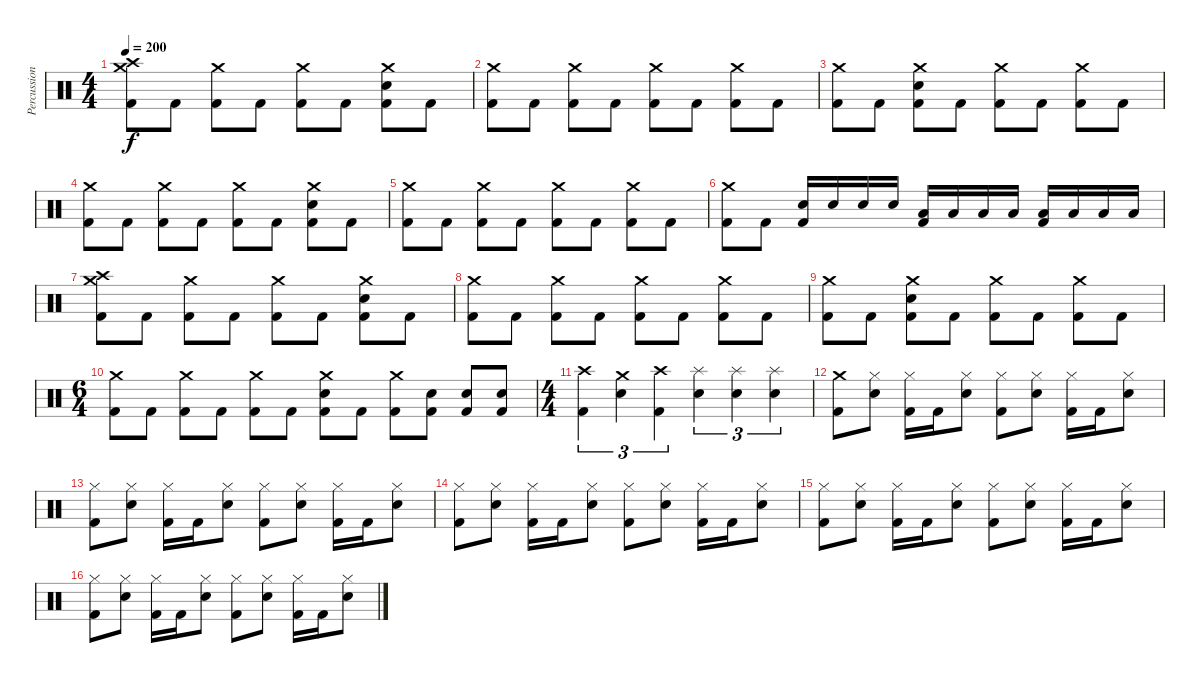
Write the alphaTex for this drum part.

\track ("Percussion" "Percussion") {instrument percussion}
\staff {score}
\articulation defaults
\ts (4 4)
\tempo 200
\clef neutral
\ks c
("Crash medium (hit)" "Crash high (hit)" "Kick (hit) 2").8{dy f} "Kick (hit) 2".8 ("Crash medium (hit)" "Kick (hit) 2").8 "Kick (hit) 2".8 ("Crash medium (hit)" "Kick (hit) 2").8 "Kick (hit) 2".8 ("Crash medium (hit)" "Electric Snare (hit)" "Kick (hit) 2").8 "Kick (hit) 2".8 |
("Crash medium (hit)" "Kick (hit) 2").8 "Kick (hit) 2".8 ("Crash medium (hit)" "Kick (hit) 2").8 "Kick (hit) 2".8 ("Crash medium (hit)" "Kick (hit) 2").8 "Kick (hit) 2".8 ("Crash medium (hit)" "Kick (hit) 2").8 "Kick (hit) 2".8 |
("Crash medium (hit)" "Kick (hit) 2").8 "Kick (hit) 2".8 ("Crash medium (hit)" "Electric Snare (hit)" "Kick (hit) 2").8 "Kick (hit) 2".8 ("Crash medium (hit)" "Kick (hit) 2").8 "Kick (hit) 2".8 ("Crash medium (hit)" "Kick (hit) 2").8 "Kick (hit) 2".8 |
("Crash medium (hit)" "Kick (hit) 2").8 "Kick (hit) 2".8 ("Crash medium (hit)" "Kick (hit) 2").8 "Kick (hit) 2".8 ("Crash medium (hit)" "Kick (hit) 2").8 "Kick (hit) 2".8 ("Crash medium (hit)" "Electric Snare (hit)" "Kick (hit) 2").8 "Kick (hit) 2".8 |
("Crash medium (hit)" "Kick (hit) 2").8 "Kick (hit) 2".8 ("Crash medium (hit)" "Kick (hit) 2").8 "Kick (hit) 2".8 ("Crash medium (hit)" "Kick (hit) 2").8 "Kick (hit) 2".8 ("Crash medium (hit)" "Kick (hit) 2").8 "Kick (hit) 2".8 |
("Crash medium (hit)" "Kick (hit) 2").8 "Kick (hit) 2".8 ("Electric Snare (hit)" "Kick (hit) 2").16 "Electric Snare (hit)".16 "Electric Snare (hit)".16 "Electric Snare (hit)".16 ("Low Tom (hit)" "Kick (hit) 2").16 "Low Tom (hit)".16 "Low Tom (hit)".16 "Low Tom (hit)".16 ("Low Floor Tom (hit)" "Kick (hit) 2").16 "Low Floor Tom (hit)".16 "Low Floor Tom (hit)".16 "Low Floor Tom (hit)".16 |
("Crash medium (hit)" "Crash high (hit)" "Kick (hit) 2").8 "Kick (hit) 2".8 ("Crash medium (hit)" "Kick (hit) 2").8 "Kick (hit) 2".8 ("Crash medium (hit)" "Kick (hit) 2").8 "Kick (hit) 2".8 ("Crash medium (hit)" "Electric Snare (hit)" "Kick (hit) 2").8 "Kick (hit) 2".8 |
("Crash medium (hit)" "Kick (hit) 2").8 "Kick (hit) 2".8 ("Crash medium (hit)" "Kick (hit) 2").8 "Kick (hit) 2".8 ("Crash medium (hit)" "Kick (hit) 2").8 "Kick (hit) 2".8 ("Crash medium (hit)" "Kick (hit) 2").8 "Kick (hit) 2".8 |
("Crash medium (hit)" "Kick (hit) 2").8 "Kick (hit) 2".8 ("Crash medium (hit)" "Electric Snare (hit)" "Kick (hit) 2").8 "Kick (hit) 2".8 ("Crash medium (hit)" "Kick (hit) 2").8 "Kick (hit) 2".8 ("Crash medium (hit)" "Kick (hit) 2").8 "Kick (hit) 2".8 |
\ts (6 4)
("Crash medium (hit)" "Kick (hit) 2").8 "Kick (hit) 2".8 ("Crash medium (hit)" "Kick (hit) 2").8 "Kick (hit) 2".8 ("Crash medium (hit)" "Kick (hit) 2").8 "Kick (hit) 2".8 ("Crash medium (hit)" "Electric Snare (hit)" "Kick (hit) 2").8 "Kick (hit) 2".8 ("Crash medium (hit)" "Kick (hit) 2").8 ("Electric Snare (hit)" "Kick (hit) 2").8 ("Electric Snare (hit)" "Kick (hit) 2").8 ("Electric Snare (hit)" "Kick (hit) 2").8 |
\ts (4 4)
("Crash high (hit)" "Kick (hit) 2").4{tu (3 2)} ("Crash medium (hit)" "Electric Snare (hit)").4{tu (3 2)} ("Crash high (hit)" "Kick (hit) 2").4{tu (3 2)} ("Splash (hit)" "Electric Snare (hit)").4{tu (3 2)} ("Splash (hit)" "Electric Snare (hit)").4{tu (3 2)} ("Splash (hit)" "Electric Snare (hit)").4{tu (3 2)} |
("Crash medium (hit)" "Kick (hit) 2").8 ("Hi-Hat (closed)" "Electric Snare (hit)").8 ("Hi-Hat (closed)" "Kick (hit) 2").16 "Kick (hit) 2".16 ("Hi-Hat (closed)" "Electric Snare (hit)").8 ("Hi-Hat (closed)" "Kick (hit) 2").8 ("Hi-Hat (closed)" "Electric Snare (hit)").8 ("Hi-Hat (closed)" "Kick (hit) 2").16 "Kick (hit) 2".16 ("Hi-Hat (closed)" "Electric Snare (hit)").8 |
("Hi-Hat (closed)" "Kick (hit) 2").8 ("Hi-Hat (closed)" "Electric Snare (hit)").8 ("Hi-Hat (closed)" "Kick (hit) 2").16 "Kick (hit) 2".16 ("Hi-Hat (closed)" "Electric Snare (hit)").8 ("Hi-Hat (closed)" "Kick (hit) 2").8 ("Hi-Hat (closed)" "Electric Snare (hit)").8 ("Hi-Hat (closed)" "Kick (hit) 2").16 "Kick (hit) 2".16 ("Hi-Hat (closed)" "Electric Snare (hit)").8 |
("Hi-Hat (closed)" "Kick (hit) 2").8 ("Hi-Hat (closed)" "Electric Snare (hit)").8 ("Hi-Hat (closed)" "Kick (hit) 2").16 "Kick (hit) 2".16 ("Hi-Hat (closed)" "Electric Snare (hit)").8 ("Hi-Hat (closed)" "Kick (hit) 2").8 ("Hi-Hat (closed)" "Electric Snare (hit)").8 ("Hi-Hat (closed)" "Kick (hit) 2").16 "Kick (hit) 2".16 ("Hi-Hat (closed)" "Electric Snare (hit)").8 |
("Hi-Hat (closed)" "Kick (hit) 2").8 ("Hi-Hat (closed)" "Electric Snare (hit)").8 ("Hi-Hat (closed)" "Kick (hit) 2").16 "Kick (hit) 2".16 ("Hi-Hat (closed)" "Electric Snare (hit)").8 ("Hi-Hat (closed)" "Kick (hit) 2").8 ("Hi-Hat (closed)" "Electric Snare (hit)").8 ("Hi-Hat (closed)" "Kick (hit) 2").16 "Kick (hit) 2".16 ("Hi-Hat (closed)" "Electric Snare (hit)").8 |
("Hi-Hat (closed)" "Kick (hit) 2").8 ("Hi-Hat (closed)" "Electric Snare (hit)").8 ("Hi-Hat (closed)" "Kick (hit) 2").16 "Kick (hit) 2".16 ("Hi-Hat (closed)" "Electric Snare (hit)").8 ("Hi-Hat (closed)" "Kick (hit) 2").8 ("Hi-Hat (closed)" "Electric Snare (hit)").8 ("Hi-Hat (closed)" "Kick (hit) 2").16 "Kick (hit) 2".16 ("Hi-Hat (closed)" "Electric Snare (hit)").8
